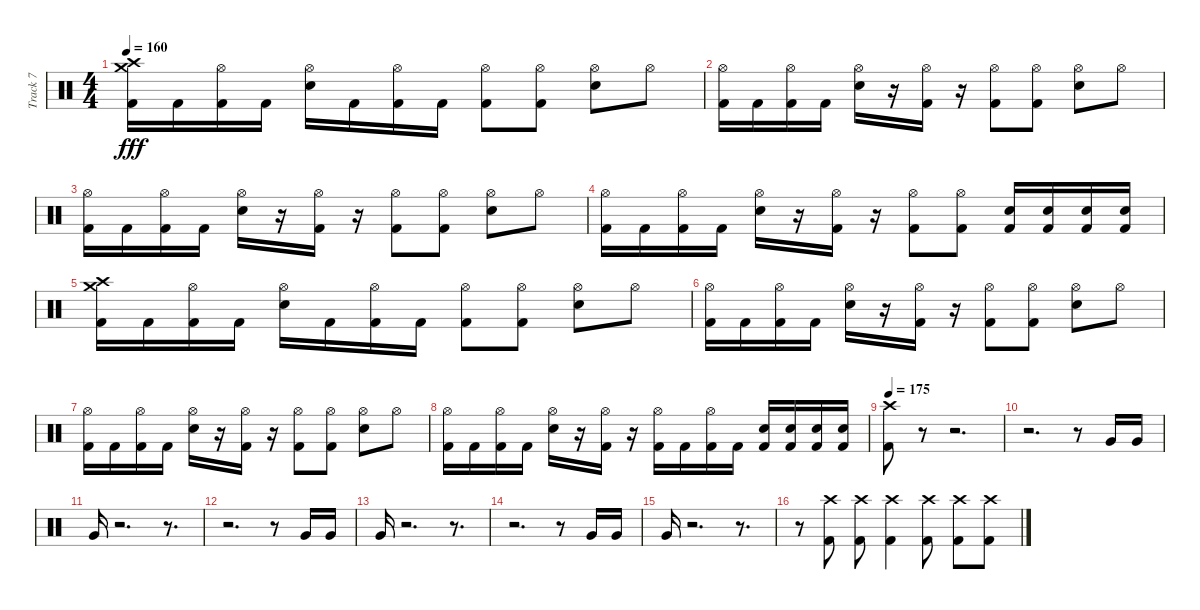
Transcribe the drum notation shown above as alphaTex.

\track ("Track 7" "Track 7") {instrument percussion}
\staff {score}
\articulation defaults
\ts (4 4)
\tempo 160
\clef neutral
\ks c
("Kick (hit) 2" "Crash medium (hit)" "Crash high (hit)").16{dy fff} "Kick (hit) 2".16 ("Kick (hit) 2" "Hi-Hat (open)").16 "Kick (hit) 2".16 ("Electric Snare (hit)" "Hi-Hat (open)").16 "Kick (hit) 2".16 ("Kick (hit) 2" "Hi-Hat (open)").16 "Kick (hit) 2".16 ("Kick (hit) 2" "Hi-Hat (open)").8 ("Kick (hit) 2" "Hi-Hat (open)").8 ("Electric Snare (hit)" "Hi-Hat (open)").8 "Hi-Hat (open)".8 |
("Kick (hit) 2" "Hi-Hat (open)").16 "Kick (hit) 2".16 ("Kick (hit) 2" "Hi-Hat (open)").16 "Kick (hit) 2".16 ("Electric Snare (hit)" "Hi-Hat (open)").16 r.16 ("Kick (hit) 2" "Hi-Hat (open)").16 r.16 ("Kick (hit) 2" "Hi-Hat (open)").8 ("Kick (hit) 2" "Hi-Hat (open)").8 ("Electric Snare (hit)" "Hi-Hat (open)").8 "Hi-Hat (open)".8 |
("Kick (hit) 2" "Hi-Hat (open)").16 "Kick (hit) 2".16 ("Kick (hit) 2" "Hi-Hat (open)").16 "Kick (hit) 2".16 ("Electric Snare (hit)" "Hi-Hat (open)").16 r.16 ("Kick (hit) 2" "Hi-Hat (open)").16 r.16 ("Kick (hit) 2" "Hi-Hat (open)").8 ("Kick (hit) 2" "Hi-Hat (open)").8 ("Electric Snare (hit)" "Hi-Hat (open)").8 "Hi-Hat (open)".8 |
("Kick (hit) 2" "Hi-Hat (open)").16 "Kick (hit) 2".16 ("Kick (hit) 2" "Hi-Hat (open)").16 "Kick (hit) 2".16 ("Electric Snare (hit)" "Hi-Hat (open)").16 r.16 ("Kick (hit) 2" "Hi-Hat (open)").16 r.16 ("Kick (hit) 2" "Hi-Hat (open)").8 ("Kick (hit) 2" "Hi-Hat (open)").8 ("Kick (hit) 2" "Electric Snare (hit)").16 ("Kick (hit) 2" "Electric Snare (hit)").16 ("Kick (hit) 2" "Electric Snare (hit)").16 ("Kick (hit) 2" "Electric Snare (hit)").16 |
("Kick (hit) 2" "Crash medium (hit)" "Crash high (hit)").16 "Kick (hit) 2".16 ("Kick (hit) 2" "Hi-Hat (open)").16 "Kick (hit) 2".16 ("Electric Snare (hit)" "Hi-Hat (open)").16 "Kick (hit) 2".16 ("Kick (hit) 2" "Hi-Hat (open)").16 "Kick (hit) 2".16 ("Kick (hit) 2" "Hi-Hat (open)").8 ("Kick (hit) 2" "Hi-Hat (open)").8 ("Electric Snare (hit)" "Hi-Hat (open)").8 "Hi-Hat (open)".8 |
("Kick (hit) 2" "Hi-Hat (open)").16 "Kick (hit) 2".16 ("Kick (hit) 2" "Hi-Hat (open)").16 "Kick (hit) 2".16 ("Electric Snare (hit)" "Hi-Hat (open)").16 r.16 ("Kick (hit) 2" "Hi-Hat (open)").16 r.16 ("Kick (hit) 2" "Hi-Hat (open)").8 ("Kick (hit) 2" "Hi-Hat (open)").8 ("Electric Snare (hit)" "Hi-Hat (open)").8 "Hi-Hat (open)".8 |
("Kick (hit) 2" "Hi-Hat (open)").16 "Kick (hit) 2".16 ("Kick (hit) 2" "Hi-Hat (open)").16 "Kick (hit) 2".16 ("Electric Snare (hit)" "Hi-Hat (open)").16 r.16 ("Kick (hit) 2" "Hi-Hat (open)").16 r.16 ("Kick (hit) 2" "Hi-Hat (open)").8 ("Kick (hit) 2" "Hi-Hat (open)").8 ("Electric Snare (hit)" "Hi-Hat (open)").8 "Hi-Hat (open)".8 |
("Kick (hit) 2" "Hi-Hat (open)").16 "Kick (hit) 2".16 ("Kick (hit) 2" "Hi-Hat (open)").16 "Kick (hit) 2".16 ("Electric Snare (hit)" "Hi-Hat (open)").16 r.16 ("Kick (hit) 2" "Hi-Hat (open)").16 r.16 ("Kick (hit) 2" "Hi-Hat (open)").16 "Kick (hit) 2".16 ("Kick (hit) 2" "Hi-Hat (open)").16 "Kick (hit) 2".16 ("Kick (hit) 2" "Electric Snare (hit)").16 ("Kick (hit) 2" "Electric Snare (hit)").16 ("Kick (hit) 2" "Electric Snare (hit)").16 ("Kick (hit) 2" "Electric Snare (hit)").16 |
\tempo 175
("Kick (hit) 2" "Crash high (hit)").8 r.8 r.2{d} |
r.2{d} r.8 "Very Low Tom (hit)".16 "Very Low Tom (hit)".16 |
"Very Low Tom (hit)".16 r.2{d} r.8{d} |
r.2{d} r.8 "Very Low Tom (hit)".16 "Very Low Tom (hit)".16 |
"Very Low Tom (hit)".16 r.2{d} r.8{d} |
r.2{d} r.8 "Very Low Tom (hit)".16 "Very Low Tom (hit)".16 |
"Very Low Tom (hit)".16 r.2{d} r.8{d} |
r.8 ("Kick (hit) 2" "Crash high (hit)").8 ("Kick (hit) 2" "Crash high (hit)").8 ("Kick (hit) 2" "Crash high (hit)").4 ("Kick (hit) 2" "Crash high (hit)").8 ("Kick (hit) 2" "Crash high (hit)").8 ("Kick (hit) 2" "Crash high (hit)").8
